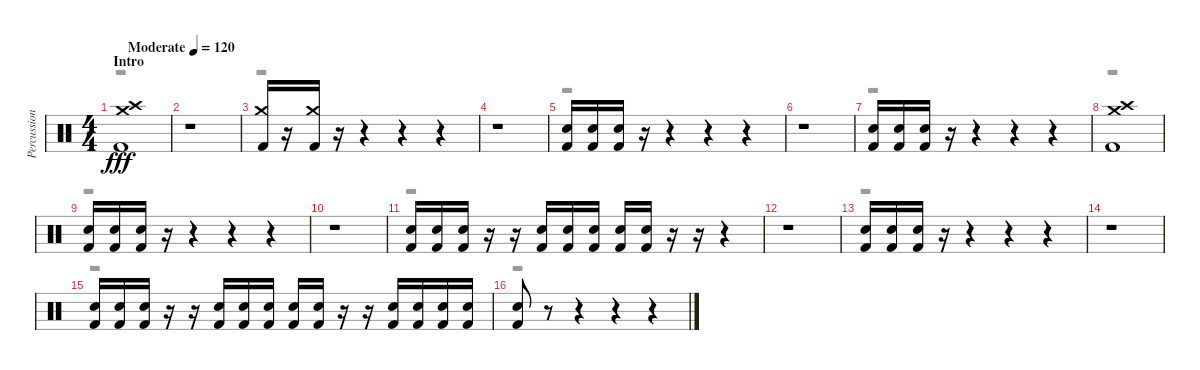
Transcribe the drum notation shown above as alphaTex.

\track ("Percussion" "Percussion") {instrument percussion}
\staff {score}
\articulation defaults
\voice
\ts (4 4)
\section ("" "Intro")
\tempo (120 "Moderate")
\clef neutral
\ks c
("Crash high (hit)" "Crash medium (hit)" "Kick (hit) 2").1{dy fff} |
r.1 |
("Crash medium (hit)" "Kick (hit) 2").16{volume 13} r.16{volume 0} ("Crash medium (hit)" "Kick (hit) 2").16{volume 13} r.16{volume 0} r.4 r.4 r.4 |
r.1 |
("Snare (hit) 2" "Kick (hit) 2").16 ("Snare (hit) 2" "Kick (hit) 2").16 ("Snare (hit) 2" "Kick (hit) 2").16 r.16 r.4 r.4 r.4 |
r.1 |
("Snare (hit) 2" "Kick (hit) 2").16 ("Snare (hit) 2" "Kick (hit) 2").16 ("Snare (hit) 2" "Kick (hit) 2").16 r.16 r.4 r.4 r.4 |
("Crash high (hit)" "Crash medium (hit)" "Kick (hit) 2").1 |
("Snare (hit) 2" "Kick (hit) 2").16 ("Snare (hit) 2" "Kick (hit) 2").16 ("Snare (hit) 2" "Kick (hit) 2").16 r.16 r.4 r.4 r.4 |
r.1 |
("Snare (hit) 2" "Kick (hit) 2").16 ("Snare (hit) 2" "Kick (hit) 2").16 ("Snare (hit) 2" "Kick (hit) 2").16 r.16 r.16 ("Snare (hit) 2" "Kick (hit) 2").16 ("Snare (hit) 2" "Kick (hit) 2").16 ("Snare (hit) 2" "Kick (hit) 2").16 ("Snare (hit) 2" "Kick (hit) 2").16 ("Snare (hit) 2" "Kick (hit) 2").16 r.16 r.16 r.4 |
r.1 |
("Snare (hit) 2" "Kick (hit) 2").16 ("Snare (hit) 2" "Kick (hit) 2").16 ("Snare (hit) 2" "Kick (hit) 2").16 r.16 r.4 r.4 r.4 |
r.1 |
("Snare (hit) 2" "Kick (hit) 2").16 ("Snare (hit) 2" "Kick (hit) 2").16 ("Snare (hit) 2" "Kick (hit) 2").16 r.16 r.16 ("Snare (hit) 2" "Kick (hit) 2").16 ("Snare (hit) 2" "Kick (hit) 2").16 ("Snare (hit) 2" "Kick (hit) 2").16 ("Snare (hit) 2" "Kick (hit) 2").16 ("Snare (hit) 2" "Kick (hit) 2").16 r.16 r.16 ("Snare (hit) 2" "Kick (hit) 2").16 ("Snare (hit) 2" "Kick (hit) 2").16 ("Snare (hit) 2" "Kick (hit) 2").16 ("Snare (hit) 2" "Kick (hit) 2").16 |
("Snare (hit) 2" "Kick (hit) 2").8 r.8 r.4 r.4 r.4
\voice
\clef neutral
\ottava regular
\simile none
\ks c
r.1{dy fff} |
r.1 |
r.1 |
r.1 |
r.1 |
r.1 |
r.1 |
r.1 |
r.1 |
r.1 |
r.1 |
r.1 |
r.1 |
r.1 |
r.1 |
r.1
